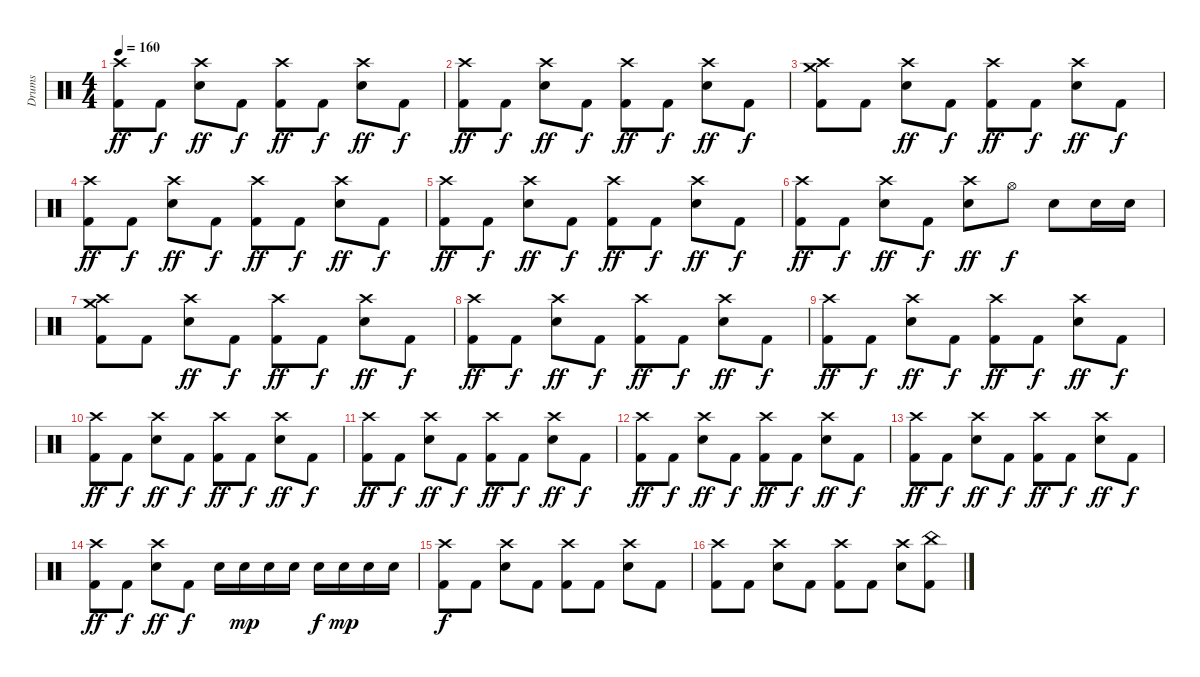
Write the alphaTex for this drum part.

\track ("Drums" "Drums") {instrument percussion}
\staff {score}
\articulation defaults
\ts (4 4)
\tempo 160
\clef neutral
\ks c
("Crash high (hit)" "Kick (hit) 2").8{dy ff} "Kick (hit) 2".8{dy f} ("Crash high (hit)" "Snare (hit) 2").8{dy ff} "Kick (hit) 2".8{dy f} ("Crash high (hit)" "Kick (hit) 2").8{dy ff} "Kick (hit) 2".8{dy f} ("Crash high (hit)" "Snare (hit) 2").8{dy ff} "Kick (hit) 2".8{dy f} |
("Crash high (hit)" "Kick (hit) 2").8{dy ff} "Kick (hit) 2".8{dy f} ("Crash high (hit)" "Snare (hit) 2").8{dy ff} "Kick (hit) 2".8{dy f} ("Crash high (hit)" "Kick (hit) 2").8{dy ff} "Kick (hit) 2".8{dy f} ("Crash high (hit)" "Snare (hit) 2").8{dy ff} "Kick (hit) 2".8{dy f} |
("Crash high (hit)" "Crash medium (hit)" "Kick (hit) 2").8 "Kick (hit) 2".8 ("Crash high (hit)" "Snare (hit) 2").8{dy ff} "Kick (hit) 2".8{dy f} ("Crash high (hit)" "Kick (hit) 2").8{dy ff} "Kick (hit) 2".8{dy f} ("Crash high (hit)" "Snare (hit) 2").8{dy ff} "Kick (hit) 2".8{dy f} |
("Crash high (hit)" "Kick (hit) 2").8{dy ff} "Kick (hit) 2".8{dy f} ("Crash high (hit)" "Snare (hit) 2").8{dy ff} "Kick (hit) 2".8{dy f} ("Crash high (hit)" "Kick (hit) 2").8{dy ff} "Kick (hit) 2".8{dy f} ("Crash high (hit)" "Snare (hit) 2").8{dy ff} "Kick (hit) 2".8{dy f} |
("Crash high (hit)" "Kick (hit) 2").8{dy ff} "Kick (hit) 2".8{dy f} ("Crash high (hit)" "Snare (hit) 2").8{dy ff} "Kick (hit) 2".8{dy f} ("Crash high (hit)" "Kick (hit) 2").8{dy ff} "Kick (hit) 2".8{dy f} ("Crash high (hit)" "Snare (hit) 2").8{dy ff} "Kick (hit) 2".8{dy f} |
("Crash high (hit)" "Kick (hit) 2").8{dy ff} "Kick (hit) 2".8{dy f} ("Crash high (hit)" "Snare (hit) 2").8{dy ff} "Kick (hit) 2".8{dy f} ("Crash high (hit)" "Snare (hit) 2").8{dy ff} "Hi-Hat (open)".8{dy f} "Snare (hit) 2".8 "Snare (hit) 2".16 "Snare (hit) 2".16 |
("Crash high (hit)" "Crash medium (hit)" "Kick (hit) 2").8 "Kick (hit) 2".8 ("Crash high (hit)" "Snare (hit) 2").8{dy ff} "Kick (hit) 2".8{dy f} ("Crash high (hit)" "Kick (hit) 2").8{dy ff} "Kick (hit) 2".8{dy f} ("Crash high (hit)" "Snare (hit) 2").8{dy ff} "Kick (hit) 2".8{dy f} |
("Crash high (hit)" "Kick (hit) 2").8{dy ff} "Kick (hit) 2".8{dy f} ("Crash high (hit)" "Snare (hit) 2").8{dy ff} "Kick (hit) 2".8{dy f} ("Crash high (hit)" "Kick (hit) 2").8{dy ff} "Kick (hit) 2".8{dy f} ("Crash high (hit)" "Snare (hit) 2").8{dy ff} "Kick (hit) 2".8{dy f} |
("Crash high (hit)" "Kick (hit) 2").8{dy ff} "Kick (hit) 2".8{dy f} ("Crash high (hit)" "Snare (hit) 2").8{dy ff} "Kick (hit) 2".8{dy f} ("Crash high (hit)" "Kick (hit) 2").8{dy ff} "Kick (hit) 2".8{dy f} ("Crash high (hit)" "Snare (hit) 2").8{dy ff} "Kick (hit) 2".8{dy f} |
("Crash high (hit)" "Kick (hit) 2").8{dy ff} "Kick (hit) 2".8{dy f} ("Crash high (hit)" "Snare (hit) 2").8{dy ff} "Kick (hit) 2".8{dy f} ("Crash high (hit)" "Kick (hit) 2").8{dy ff} "Kick (hit) 2".8{dy f} ("Crash high (hit)" "Snare (hit) 2").8{dy ff} "Kick (hit) 2".8{dy f} |
("Crash high (hit)" "Kick (hit) 2").8{dy ff} "Kick (hit) 2".8{dy f} ("Crash high (hit)" "Snare (hit) 2").8{dy ff} "Kick (hit) 2".8{dy f} ("Crash high (hit)" "Kick (hit) 2").8{dy ff} "Kick (hit) 2".8{dy f} ("Crash high (hit)" "Snare (hit) 2").8{dy ff} "Kick (hit) 2".8{dy f} |
("Crash high (hit)" "Kick (hit) 2").8{dy ff} "Kick (hit) 2".8{dy f} ("Crash high (hit)" "Snare (hit) 2").8{dy ff} "Kick (hit) 2".8{dy f} ("Crash high (hit)" "Kick (hit) 2").8{dy ff} "Kick (hit) 2".8{dy f} ("Crash high (hit)" "Snare (hit) 2").8{dy ff} "Kick (hit) 2".8{dy f} |
("Crash high (hit)" "Kick (hit) 2").8{dy ff} "Kick (hit) 2".8{dy f} ("Crash high (hit)" "Snare (hit) 2").8{dy ff} "Kick (hit) 2".8{dy f} ("Crash high (hit)" "Kick (hit) 2").8{dy ff} "Kick (hit) 2".8{dy f} ("Crash high (hit)" "Snare (hit) 2").8{dy ff} "Kick (hit) 2".8{dy f} |
("Crash high (hit)" "Kick (hit) 2").8{dy ff} "Kick (hit) 2".8{dy f} ("Crash high (hit)" "Snare (hit) 2").8{dy ff} "Kick (hit) 2".8{dy f} "Snare (hit) 2".16 "Snare (hit) 2".16{dy mp} "Snare (hit) 2".16 "Snare (hit) 2".16 "Snare (hit) 2".16{dy f} "Snare (hit) 2".16{dy mp} "Snare (hit) 2".16 "Snare (hit) 2".16 |
("Crash high (hit)" "Kick (hit) 2").8{dy f} "Kick (hit) 2".8 ("Crash high (hit)" "Snare (hit) 2").8 "Kick (hit) 2".8 ("Crash high (hit)" "Kick (hit) 2").8 "Kick (hit) 2".8 ("Crash high (hit)" "Snare (hit) 2").8 "Kick (hit) 2".8 |
("Crash high (hit)" "Kick (hit) 2").8 "Kick (hit) 2".8 ("Crash high (hit)" "Snare (hit) 2").8 "Kick (hit) 2".8 ("Crash high (hit)" "Kick (hit) 2").8 "Kick (hit) 2".8 ("Crash high (hit)" "Snare (hit) 2").8 ("China (hit)" "Kick (hit) 2").8
